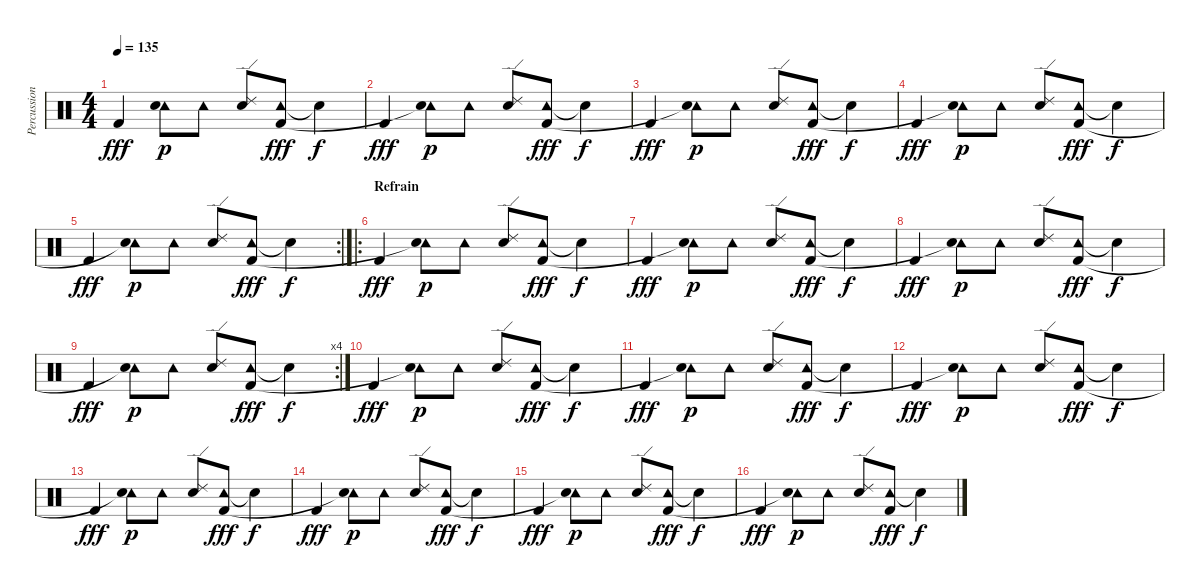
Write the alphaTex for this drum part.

\track ("Percussion" "Percussion") {instrument percussion}
\staff {score}
\articulation defaults
\ts (4 4)
\tempo 135
\clef neutral
\ks c "Kick (hit) 2".4{dy fff}
("Tambourine (hit)" "Snare (hit)"{t}).8{dy p} "Tambourine (hit)".8 ("Snare (hit) 2" "Ride (edge) 2").8 ("Tambourine (hit)" "Kick (hit) 2").8{dy fff} "Snare (hit)"{t}.4{dy f} |
"Kick (hit) 2".4{dy fff} ("Tambourine (hit)" "Snare (hit)"{t}).8{dy p} "Tambourine (hit)".8 ("Snare (hit) 2" "Ride (edge) 2").8 ("Tambourine (hit)" "Kick (hit) 2").8{dy fff} "Snare (hit)"{t}.4{dy f} |
"Kick (hit) 2".4{dy fff} ("Tambourine (hit)" "Snare (hit)"{t}).8{dy p} "Tambourine (hit)".8 ("Snare (hit) 2" "Ride (edge) 2").8 ("Tambourine (hit)" "Kick (hit) 2").8{dy fff} "Snare (hit)"{t}.4{dy f} |
"Kick (hit) 2".4{dy fff} ("Tambourine (hit)" "Snare (hit)"{t}).8{dy p} "Tambourine (hit)".8 ("Snare (hit) 2" "Ride (edge) 2").8 ("Tambourine (hit)" "Kick (hit) 2").8{dy fff} "Snare (hit)"{t}.4{dy f} |
\rc 2 "Kick (hit) 2".4{dy fff}
("Tambourine (hit)" "Snare (hit)"{t}).8{dy p} "Tambourine (hit)".8 ("Snare (hit) 2" "Ride (edge) 2").8 ("Tambourine (hit)" "Kick (hit) 2").8{dy fff} "Snare (hit)"{t}.4{dy f} |
\ro
\section ("" "Refrain")
"Kick (hit) 2".4{dy fff} ("Tambourine (hit)" "Snare (hit)"{t}).8{dy p} "Tambourine (hit)".8 ("Snare (hit) 2" "Ride (edge) 2").8 ("Tambourine (hit)" "Kick (hit) 2").8{dy fff} "Snare (hit)"{t}.4{dy f} |
"Kick (hit) 2".4{dy fff} ("Tambourine (hit)" "Snare (hit)"{t}).8{dy p} "Tambourine (hit)".8 ("Snare (hit) 2" "Ride (edge) 2").8 ("Tambourine (hit)" "Kick (hit) 2").8{dy fff} "Snare (hit)"{t}.4{dy f} |
"Kick (hit) 2".4{dy fff} ("Tambourine (hit)" "Snare (hit)"{t}).8{dy p} "Tambourine (hit)".8 ("Snare (hit) 2" "Ride (edge) 2").8 ("Tambourine (hit)" "Kick (hit) 2").8{dy fff} "Snare (hit)"{t}.4{dy f} |
\rc 4 "Kick (hit) 2".4{dy fff}
("Tambourine (hit)" "Snare (hit)"{t}).8{dy p} "Tambourine (hit)".8 ("Snare (hit) 2" "Ride (edge) 2").8 ("Tambourine (hit)" "Kick (hit) 2").8{dy fff} "Snare (hit)"{t}.4{dy f} |
"Kick (hit) 2".4{dy fff} ("Tambourine (hit)" "Snare (hit)"{t}).8{dy p} "Tambourine (hit)".8 ("Snare (hit) 2" "Ride (edge) 2").8 ("Tambourine (hit)" "Kick (hit) 2").8{dy fff} "Snare (hit)"{t}.4{dy f} |
"Kick (hit) 2".4{dy fff} ("Tambourine (hit)" "Snare (hit)"{t}).8{dy p} "Tambourine (hit)".8 ("Snare (hit) 2" "Ride (edge) 2").8 ("Tambourine (hit)" "Kick (hit) 2").8{dy fff} "Snare (hit)"{t}.4{dy f} |
"Kick (hit) 2".4{dy fff} ("Tambourine (hit)" "Snare (hit)"{t}).8{dy p} "Tambourine (hit)".8 ("Snare (hit) 2" "Ride (edge) 2").8 ("Tambourine (hit)" "Kick (hit) 2").8{dy fff} "Snare (hit)"{t}.4{dy f} |
"Kick (hit) 2".4{dy fff} ("Tambourine (hit)" "Snare (hit)"{t}).8{dy p} "Tambourine (hit)".8 ("Snare (hit) 2" "Ride (edge) 2").8 ("Tambourine (hit)" "Kick (hit) 2").8{dy fff} "Snare (hit)"{t}.4{dy f} |
"Kick (hit) 2".4{dy fff} ("Tambourine (hit)" "Snare (hit)"{t}).8{dy p} "Tambourine (hit)".8 ("Snare (hit) 2" "Ride (edge) 2").8 ("Tambourine (hit)" "Kick (hit) 2").8{dy fff} "Snare (hit)"{t}.4{dy f} |
"Kick (hit) 2".4{dy fff} ("Tambourine (hit)" "Snare (hit)"{t}).8{dy p} "Tambourine (hit)".8 ("Snare (hit) 2" "Ride (edge) 2").8 ("Tambourine (hit)" "Kick (hit) 2").8{dy fff} "Snare (hit)"{t}.4{dy f} |
"Kick (hit) 2".4{dy fff} ("Tambourine (hit)" "Snare (hit)"{t}).8{dy p} "Tambourine (hit)".8 ("Snare (hit) 2" "Ride (edge) 2").8 ("Tambourine (hit)" "Kick (hit) 2").8{dy fff} "Snare (hit)"{t}.4{dy f}
